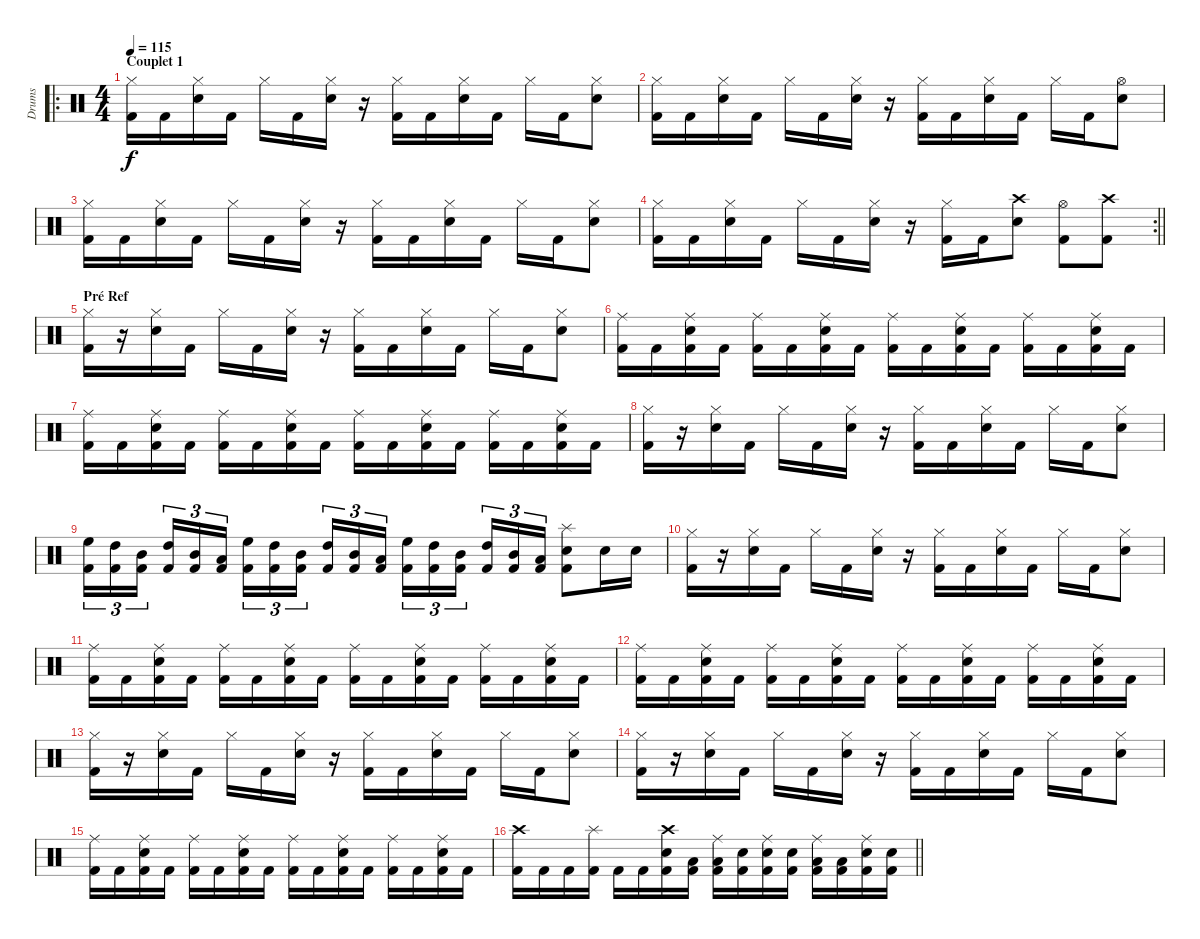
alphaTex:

\track ("Drums" "Drums") {instrument percussion}
\staff {score}
\articulation defaults
\ro
\ts (4 4)
\section ("" "Couplet 1")
\tempo 115
\clef neutral
\ks c
("Hi-Hat (closed)" "Kick (hit) 2").16{dy f} "Kick (hit) 2".16 ("Hi-Hat (closed)" "Electric Snare (hit)").16 "Kick (hit) 2".16 "Hi-Hat (closed)".16 "Kick (hit) 2".16 ("Hi-Hat (closed)" "Electric Snare (hit)").16 r.16 ("Hi-Hat (closed)" "Kick (hit) 2").16 "Kick (hit) 2".16 ("Hi-Hat (closed)" "Electric Snare (hit)").16 "Kick (hit) 2".16 "Hi-Hat (closed)".16 "Kick (hit) 2".16 ("Hi-Hat (closed)" "Electric Snare (hit)").8 |
("Hi-Hat (closed)" "Kick (hit) 2").16 "Kick (hit) 2".16 ("Hi-Hat (closed)" "Electric Snare (hit)").16 "Kick (hit) 2".16 "Hi-Hat (closed)".16 "Kick (hit) 2".16 ("Hi-Hat (closed)" "Electric Snare (hit)").16 r.16 ("Hi-Hat (closed)" "Kick (hit) 2").16 "Kick (hit) 2".16 ("Hi-Hat (closed)" "Electric Snare (hit)").16 "Kick (hit) 2".16 "Hi-Hat (closed)".16 "Kick (hit) 2".16 ("Hi-Hat (open)" "Electric Snare (hit)").8 |
("Hi-Hat (closed)" "Kick (hit) 2").16 "Kick (hit) 2".16 ("Hi-Hat (closed)" "Electric Snare (hit)").16 "Kick (hit) 2".16 "Hi-Hat (closed)".16 "Kick (hit) 2".16 ("Hi-Hat (closed)" "Electric Snare (hit)").16 r.16 ("Hi-Hat (closed)" "Kick (hit) 2").16 "Kick (hit) 2".16 ("Hi-Hat (closed)" "Electric Snare (hit)").16 "Kick (hit) 2".16 "Hi-Hat (closed)".16 "Kick (hit) 2".16 ("Hi-Hat (closed)" "Electric Snare (hit)").8 |
\rc 2
\barLineRight lightlight
("Hi-Hat (closed)" "Kick (hit) 2").16 "Kick (hit) 2".16 ("Hi-Hat (closed)" "Electric Snare (hit)").16 "Kick (hit) 2".16 "Hi-Hat (closed)".16 "Kick (hit) 2".16 ("Hi-Hat (closed)" "Electric Snare (hit)").16 r.16 ("Hi-Hat (closed)" "Kick (hit) 2").16 "Kick (hit) 2".16 ("Crash high (hit)" "Electric Snare (hit)").8 ("Hi-Hat (open)" "Kick (hit) 2").8 ("Crash high (hit)" "Kick (hit) 2").8 |
\section ("" "Pré Ref")
("Hi-Hat (closed)" "Kick (hit) 2").16 r.16 ("Hi-Hat (closed)" "Electric Snare (hit)").16 "Kick (hit) 2".16 "Hi-Hat (closed)".16 "Kick (hit) 2".16 ("Hi-Hat (closed)" "Electric Snare (hit)").16 r.16 ("Hi-Hat (closed)" "Kick (hit) 2").16 "Kick (hit) 2".16 ("Hi-Hat (closed)" "Electric Snare (hit)").16 "Kick (hit) 2".16 "Hi-Hat (closed)".16 "Kick (hit) 2".16 ("Hi-Hat (closed)" "Electric Snare (hit)").8 |
("Ride (middle)" "Kick (hit) 2").16 "Kick (hit) 2".16 ("Ride (middle)" "Electric Snare (hit)" "Kick (hit) 2").16 "Kick (hit) 2".16 ("Ride (middle)" "Kick (hit) 2").16 "Kick (hit) 2".16 ("Ride (middle)" "Electric Snare (hit)" "Kick (hit) 2").16 "Kick (hit) 2".16 ("Ride (middle)" "Kick (hit) 2").16 "Kick (hit) 2".16 ("Ride (middle)" "Electric Snare (hit)" "Kick (hit) 2").16 "Kick (hit) 2".16 ("Ride (middle)" "Kick (hit) 2").16 "Kick (hit) 2".16 ("Ride (middle)" "Electric Snare (hit)" "Kick (hit) 2").16 "Kick (hit) 2".16 |
("Ride (middle)" "Kick (hit) 2").16 "Kick (hit) 2".16 ("Ride (middle)" "Electric Snare (hit)" "Kick (hit) 2").16 "Kick (hit) 2".16 ("Ride (middle)" "Kick (hit) 2").16 "Kick (hit) 2".16 ("Ride (middle)" "Electric Snare (hit)" "Kick (hit) 2").16 "Kick (hit) 2".16 ("Ride (middle)" "Kick (hit) 2").16 "Kick (hit) 2".16 ("Ride (middle)" "Electric Snare (hit)" "Kick (hit) 2").16 "Kick (hit) 2".16 ("Ride (middle)" "Kick (hit) 2").16 "Kick (hit) 2".16 ("Ride (middle)" "Electric Snare (hit)" "Kick (hit) 2").16 "Kick (hit) 2".16 |
("Hi-Hat (closed)" "Kick (hit) 2").16 r.16 ("Hi-Hat (closed)" "Electric Snare (hit)").16 "Kick (hit) 2".16 "Hi-Hat (closed)".16 "Kick (hit) 2".16 ("Hi-Hat (closed)" "Electric Snare (hit)").16 r.16 ("Hi-Hat (closed)" "Kick (hit) 2").16 "Kick (hit) 2".16 ("Hi-Hat (closed)" "Electric Snare (hit)").16 "Kick (hit) 2".16 "Hi-Hat (closed)".16 "Kick (hit) 2".16 ("Hi-Hat (closed)" "Electric Snare (hit)").8 |
("High Floor Tom (hit)" "Kick (hit) 2").16{tu (3 2)} ("High Tom (hit)" "Kick (hit) 2").16{tu (3 2)} ("Mid Tom (hit)" "Kick (hit) 2").16{tu (3 2) beam splitsecondary} ("High Tom (hit)" "Kick (hit) 2").16{tu (3 2)} ("Mid Tom (hit)" "Kick (hit) 2").16{tu (3 2)} ("Low Tom (hit)" "Kick (hit) 2").16{tu (3 2)} ("High Floor Tom (hit)" "Kick (hit) 2").16{tu (3 2)} ("High Tom (hit)" "Kick (hit) 2").16{tu (3 2)} ("Mid Tom (hit)" "Kick (hit) 2").16{tu (3 2) beam splitsecondary} ("High Tom (hit)" "Kick (hit) 2").16{tu (3 2)} ("Mid Tom (hit)" "Kick (hit) 2").16{tu (3 2)} ("Low Tom (hit)" "Kick (hit) 2").16{tu (3 2)} ("High Floor Tom (hit)" "Kick (hit) 2").16{tu (3 2)} ("High Tom (hit)" "Kick (hit) 2").16{tu (3 2)} ("Mid Tom (hit)" "Kick (hit) 2").16{tu (3 2) beam splitsecondary} ("High Tom (hit)" "Kick (hit) 2").16{tu (3 2)} ("Mid Tom (hit)" "Kick (hit) 2").16{tu (3 2)} ("Low Tom (hit)" "Kick (hit) 2").16{tu (3 2)} ("Splash (hit)" "Electric Snare (hit)" "Kick (hit) 2").8 "Electric Snare (hit)".16 "Electric Snare (hit)".16 |
("Hi-Hat (closed)" "Kick (hit) 2").16 r.16 ("Hi-Hat (closed)" "Electric Snare (hit)").16 "Kick (hit) 2".16 "Hi-Hat (closed)".16 "Kick (hit) 2".16 ("Hi-Hat (closed)" "Electric Snare (hit)").16 r.16 ("Hi-Hat (closed)" "Kick (hit) 2").16 "Kick (hit) 2".16 ("Hi-Hat (closed)" "Electric Snare (hit)").16 "Kick (hit) 2".16 "Hi-Hat (closed)".16 "Kick (hit) 2".16 ("Hi-Hat (closed)" "Electric Snare (hit)").8 |
("Ride (middle)" "Kick (hit) 2").16 "Kick (hit) 2".16 ("Ride (middle)" "Electric Snare (hit)" "Kick (hit) 2").16 "Kick (hit) 2".16 ("Ride (middle)" "Kick (hit) 2").16 "Kick (hit) 2".16 ("Ride (middle)" "Electric Snare (hit)" "Kick (hit) 2").16 "Kick (hit) 2".16 ("Ride (middle)" "Kick (hit) 2").16 "Kick (hit) 2".16 ("Ride (middle)" "Electric Snare (hit)" "Kick (hit) 2").16 "Kick (hit) 2".16 ("Ride (middle)" "Kick (hit) 2").16 "Kick (hit) 2".16 ("Ride (middle)" "Electric Snare (hit)" "Kick (hit) 2").16 "Kick (hit) 2".16 |
("Ride (middle)" "Kick (hit) 2").16 "Kick (hit) 2".16 ("Ride (middle)" "Electric Snare (hit)" "Kick (hit) 2").16 "Kick (hit) 2".16 ("Ride (middle)" "Kick (hit) 2").16 "Kick (hit) 2".16 ("Ride (middle)" "Electric Snare (hit)" "Kick (hit) 2").16 "Kick (hit) 2".16 ("Ride (middle)" "Kick (hit) 2").16 "Kick (hit) 2".16 ("Ride (middle)" "Electric Snare (hit)" "Kick (hit) 2").16 "Kick (hit) 2".16 ("Ride (middle)" "Kick (hit) 2").16 "Kick (hit) 2".16 ("Ride (middle)" "Electric Snare (hit)" "Kick (hit) 2").16 "Kick (hit) 2".16 |
("Hi-Hat (closed)" "Kick (hit) 2").16 r.16 ("Hi-Hat (closed)" "Electric Snare (hit)").16 "Kick (hit) 2".16 "Hi-Hat (closed)".16 "Kick (hit) 2".16 ("Hi-Hat (closed)" "Electric Snare (hit)").16 r.16 ("Hi-Hat (closed)" "Kick (hit) 2").16 "Kick (hit) 2".16 ("Hi-Hat (closed)" "Electric Snare (hit)").16 "Kick (hit) 2".16 "Hi-Hat (closed)".16 "Kick (hit) 2".16 ("Hi-Hat (closed)" "Electric Snare (hit)").8 |
("Hi-Hat (closed)" "Kick (hit) 2").16 r.16 ("Hi-Hat (closed)" "Electric Snare (hit)").16 "Kick (hit) 2".16 "Hi-Hat (closed)".16 "Kick (hit) 2".16 ("Hi-Hat (closed)" "Electric Snare (hit)").16 r.16 ("Hi-Hat (closed)" "Kick (hit) 2").16 "Kick (hit) 2".16 ("Hi-Hat (closed)" "Electric Snare (hit)").16 "Kick (hit) 2".16 "Hi-Hat (closed)".16 "Kick (hit) 2".16 ("Hi-Hat (closed)" "Electric Snare (hit)").8 |
("Ride (middle)" "Kick (hit) 2").16 "Kick (hit) 2".16 ("Ride (middle)" "Electric Snare (hit)" "Kick (hit) 2").16 "Kick (hit) 2".16 ("Ride (middle)" "Kick (hit) 2").16 "Kick (hit) 2".16 ("Ride (middle)" "Electric Snare (hit)" "Kick (hit) 2").16 "Kick (hit) 2".16 ("Ride (middle)" "Kick (hit) 2").16 "Kick (hit) 2".16 ("Ride (middle)" "Electric Snare (hit)" "Kick (hit) 2").16 "Kick (hit) 2".16 ("Ride (middle)" "Kick (hit) 2").16 "Kick (hit) 2".16 ("Ride (middle)" "Electric Snare (hit)" "Kick (hit) 2").16 "Kick (hit) 2".16 |
\barLineRight lightlight
("Crash high (hit)" "Kick (hit) 2").16 "Kick (hit) 2".16 "Kick (hit) 2".16 ("Splash (hit)" "Kick (hit) 2").16 "Kick (hit) 2".16 "Kick (hit) 2".16 ("Crash high (hit)" "Electric Snare (hit)" "Kick (hit) 2").16 ("Low Tom (hit)" "Kick (hit) 2").16 ("Ride (middle)" "Low Tom (hit)" "Kick (hit) 2").16 ("Electric Snare (hit)" "Kick (hit) 2").16 ("Ride (middle)" "Electric Snare (hit)" "Kick (hit) 2").16 ("Electric Snare (hit)" "Kick (hit) 2").16 ("Ride (middle)" "Low Tom (hit)" "Kick (hit) 2").16 ("Low Tom (hit)" "Kick (hit) 2").16 ("Ride (middle)" "Electric Snare (hit)" "Kick (hit) 2").16 ("Electric Snare (hit)" "Kick (hit) 2").16
